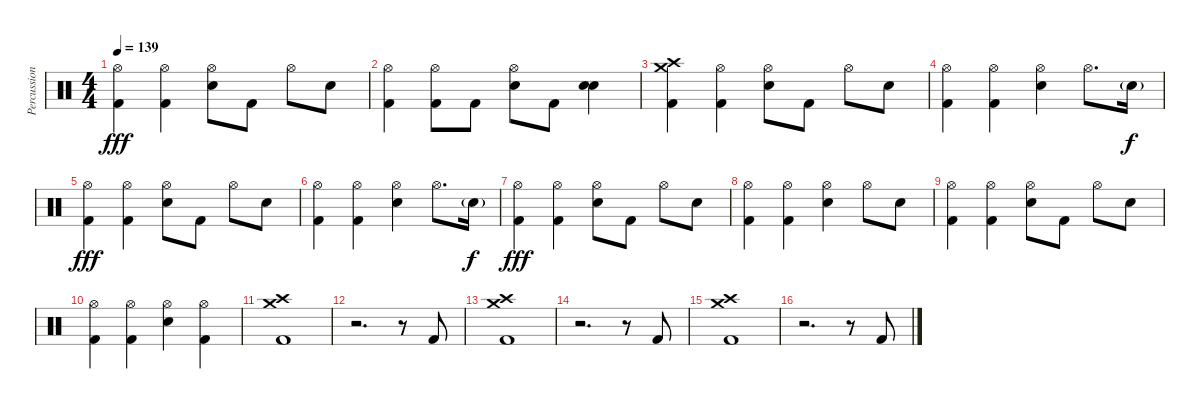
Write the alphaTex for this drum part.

\track ("Percussion" "Percussion") {instrument percussion}
\staff {score}
\articulation defaults
\ts (4 4)
\tempo 139
\clef neutral
\ks c
("Hi-Hat (open)" "Kick (hit) 2").4{dy fff} ("Hi-Hat (open)" "Kick (hit) 2").4 ("Hi-Hat (open)" "Electric Snare (hit)").8 "Kick (hit) 2".8 "Hi-Hat (open)".8 "Electric Snare (hit)".8 |
("Hi-Hat (open)" "Kick (hit) 2").4 ("Hi-Hat (open)" "Kick (hit) 2").8 "Kick (hit) 2".8 ("Hi-Hat (open)" "Electric Snare (hit)").8 "Kick (hit) 2".8 ("Electric Snare (hit)" "Electric Snare (hit)").4{bd 240} |
("Crash high (hit)" "Crash medium (hit)" "Kick (hit) 2").4 ("Hi-Hat (open)" "Kick (hit) 2").4 ("Hi-Hat (open)" "Electric Snare (hit)").8 "Kick (hit) 2".8 "Hi-Hat (open)".8 "Electric Snare (hit)".8 |
("Hi-Hat (open)" "Kick (hit) 2").4 ("Hi-Hat (open)" "Kick (hit) 2").4 ("Hi-Hat (open)" "Electric Snare (hit)").4 "Hi-Hat (open)".8{d} "Electric Snare (hit)"{g}.16{dy f} |
("Hi-Hat (open)" "Kick (hit) 2").4{dy fff} ("Hi-Hat (open)" "Kick (hit) 2").4 ("Hi-Hat (open)" "Electric Snare (hit)").8 "Kick (hit) 2".8 "Hi-Hat (open)".8 "Electric Snare (hit)".8 |
("Hi-Hat (open)" "Kick (hit) 2").4 ("Hi-Hat (open)" "Kick (hit) 2").4 ("Hi-Hat (open)" "Electric Snare (hit)").4 "Hi-Hat (open)".8{d} "Electric Snare (hit)"{g}.16{dy f} |
("Hi-Hat (open)" "Kick (hit) 2").4{dy fff} ("Hi-Hat (open)" "Kick (hit) 2").4 ("Hi-Hat (open)" "Electric Snare (hit)").8 "Kick (hit) 2".8 "Hi-Hat (open)".8 "Electric Snare (hit)".8 |
("Hi-Hat (open)" "Kick (hit) 2").4 ("Hi-Hat (open)" "Kick (hit) 2").4 ("Hi-Hat (open)" "Electric Snare (hit)").4 "Hi-Hat (open)".8 "Electric Snare (hit)".8 |
("Hi-Hat (open)" "Kick (hit) 2").4 ("Hi-Hat (open)" "Kick (hit) 2").4 ("Hi-Hat (open)" "Electric Snare (hit)").8 "Kick (hit) 2".8 "Hi-Hat (open)".8 "Electric Snare (hit)".8 |
("Hi-Hat (open)" "Kick (hit) 2").4 ("Hi-Hat (open)" "Kick (hit) 2").4 ("Hi-Hat (open)" "Electric Snare (hit)").4 ("Hi-Hat (open)" "Kick (hit) 2").4 |
("Crash high (hit)" "Crash medium (hit)" "Kick (hit) 2").1 |
r.2{d} r.8 "Kick (hit) 2".8 |
("Crash high (hit)" "Crash medium (hit)" "Kick (hit) 2").1 |
r.2{d} r.8 "Kick (hit) 2".8 |
("Crash high (hit)" "Crash medium (hit)" "Kick (hit) 2").1 |
r.2{d} r.8 "Kick (hit) 2".8
